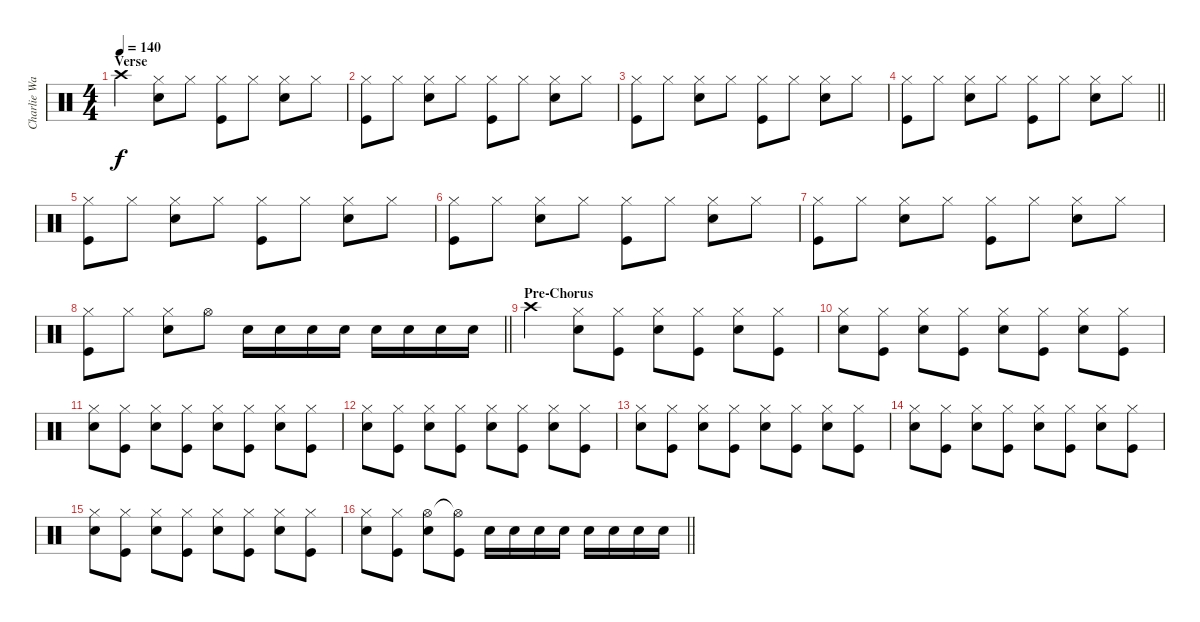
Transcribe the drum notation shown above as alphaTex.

\track ("Charlie Watts" "Charlie Wa") {instrument percussion}
\staff {score}
\articulation defaults
\ts (4 4)
\section ("" "Verse")
\tempo 140
\clef neutral
\ks c "Crash high (hit)".4{dy f}
("Snare (hit) 2" "Hi-Hat (closed)").8 "Hi-Hat (closed)".8 ("Kick (hit)" "Hi-Hat (closed)").8 "Hi-Hat (closed)".8 ("Snare (hit) 2" "Hi-Hat (closed)").8 "Hi-Hat (closed)".8 |
("Kick (hit)" "Hi-Hat (closed)").8 "Hi-Hat (closed)".8 ("Snare (hit) 2" "Hi-Hat (closed)").8 "Hi-Hat (closed)".8 ("Kick (hit)" "Hi-Hat (closed)").8 "Hi-Hat (closed)".8 ("Snare (hit) 2" "Hi-Hat (closed)").8 "Hi-Hat (closed)".8 |
("Kick (hit)" "Hi-Hat (closed)").8 "Hi-Hat (closed)".8 ("Snare (hit) 2" "Hi-Hat (closed)").8 "Hi-Hat (closed)".8 ("Kick (hit)" "Hi-Hat (closed)").8 "Hi-Hat (closed)".8 ("Snare (hit) 2" "Hi-Hat (closed)").8 "Hi-Hat (closed)".8 |
\barLineRight lightlight
("Kick (hit)" "Hi-Hat (closed)").8 "Hi-Hat (closed)".8 ("Snare (hit) 2" "Hi-Hat (closed)").8 "Hi-Hat (closed)".8 ("Kick (hit)" "Hi-Hat (closed)").8 "Hi-Hat (closed)".8 ("Snare (hit) 2" "Hi-Hat (closed)").8 "Hi-Hat (closed)".8 |
("Kick (hit)" "Hi-Hat (closed)").8 "Hi-Hat (closed)".8 ("Snare (hit) 2" "Hi-Hat (closed)").8 "Hi-Hat (closed)".8 ("Kick (hit)" "Hi-Hat (closed)").8 "Hi-Hat (closed)".8 ("Snare (hit) 2" "Hi-Hat (closed)").8 "Hi-Hat (closed)".8 |
("Kick (hit)" "Hi-Hat (closed)").8 "Hi-Hat (closed)".8 ("Snare (hit) 2" "Hi-Hat (closed)").8 "Hi-Hat (closed)".8 ("Kick (hit)" "Hi-Hat (closed)").8 "Hi-Hat (closed)".8 ("Snare (hit) 2" "Hi-Hat (closed)").8 "Hi-Hat (closed)".8 |
("Kick (hit)" "Hi-Hat (closed)").8 "Hi-Hat (closed)".8 ("Snare (hit) 2" "Hi-Hat (closed)").8 "Hi-Hat (closed)".8 ("Kick (hit)" "Hi-Hat (closed)").8 "Hi-Hat (closed)".8 ("Snare (hit) 2" "Hi-Hat (closed)").8 "Hi-Hat (closed)".8 |
\barLineRight lightlight
("Kick (hit)" "Hi-Hat (closed)").8 "Hi-Hat (closed)".8 ("Snare (hit) 2" "Hi-Hat (closed)").8 "Hi-Hat (open)".8 "Snare (hit) 2".16 "Snare (hit) 2".16 "Snare (hit) 2".16 "Snare (hit) 2".16 "Snare (hit) 2".16 "Snare (hit) 2".16 "Snare (hit) 2".16 "Snare (hit) 2".16 |
\section ("" "Pre-Chorus")
"Crash high (hit)".4 ("Snare (hit) 2" "Hi-Hat (closed)").8 ("Kick (hit)" "Hi-Hat (closed)").8 ("Snare (hit) 2" "Hi-Hat (closed)").8 ("Kick (hit)" "Hi-Hat (closed)").8 ("Snare (hit) 2" "Hi-Hat (closed)").8 ("Kick (hit)" "Hi-Hat (closed)").8 |
("Snare (hit) 2" "Hi-Hat (closed)").8 ("Kick (hit)" "Hi-Hat (closed)").8 ("Snare (hit) 2" "Hi-Hat (closed)").8 ("Kick (hit)" "Hi-Hat (closed)").8 ("Snare (hit) 2" "Hi-Hat (closed)").8 ("Kick (hit)" "Hi-Hat (closed)").8 ("Snare (hit) 2" "Hi-Hat (closed)").8 ("Kick (hit)" "Hi-Hat (closed)").8 |
("Snare (hit) 2" "Hi-Hat (closed)").8 ("Kick (hit)" "Hi-Hat (closed)").8 ("Snare (hit) 2" "Hi-Hat (closed)").8 ("Kick (hit)" "Hi-Hat (closed)").8 ("Snare (hit) 2" "Hi-Hat (closed)").8 ("Kick (hit)" "Hi-Hat (closed)").8 ("Snare (hit) 2" "Hi-Hat (closed)").8 ("Kick (hit)" "Hi-Hat (closed)").8 |
("Snare (hit) 2" "Hi-Hat (closed)").8 ("Kick (hit)" "Hi-Hat (closed)").8 ("Snare (hit) 2" "Hi-Hat (closed)").8 ("Kick (hit)" "Hi-Hat (closed)").8 ("Snare (hit) 2" "Hi-Hat (closed)").8 ("Kick (hit)" "Hi-Hat (closed)").8 ("Snare (hit) 2" "Hi-Hat (closed)").8 ("Kick (hit)" "Hi-Hat (closed)").8 |
("Snare (hit) 2" "Hi-Hat (closed)").8 ("Kick (hit)" "Hi-Hat (closed)").8 ("Snare (hit) 2" "Hi-Hat (closed)").8 ("Kick (hit)" "Hi-Hat (closed)").8 ("Snare (hit) 2" "Hi-Hat (closed)").8 ("Kick (hit)" "Hi-Hat (closed)").8 ("Snare (hit) 2" "Hi-Hat (closed)").8 ("Kick (hit)" "Hi-Hat (closed)").8 |
("Snare (hit) 2" "Hi-Hat (closed)").8 ("Kick (hit)" "Hi-Hat (closed)").8 ("Snare (hit) 2" "Hi-Hat (closed)").8 ("Kick (hit)" "Hi-Hat (closed)").8 ("Snare (hit) 2" "Hi-Hat (closed)").8 ("Kick (hit)" "Hi-Hat (closed)").8 ("Snare (hit) 2" "Hi-Hat (closed)").8 ("Kick (hit)" "Hi-Hat (closed)").8 |
("Snare (hit) 2" "Hi-Hat (closed)").8 ("Kick (hit)" "Hi-Hat (closed)").8 ("Snare (hit) 2" "Hi-Hat (closed)").8 ("Kick (hit)" "Hi-Hat (closed)").8 ("Snare (hit) 2" "Hi-Hat (closed)").8 ("Kick (hit)" "Hi-Hat (closed)").8 ("Snare (hit) 2" "Hi-Hat (closed)").8 ("Kick (hit)" "Hi-Hat (closed)").8 |
\barLineRight lightlight
("Snare (hit) 2" "Hi-Hat (closed)").8 ("Kick (hit)" "Hi-Hat (closed)").8 ("Snare (hit) 2" "Hi-Hat (open)").8 ("Kick (hit)" "Hi-Hat (open)"{t}).8 "Snare (hit) 2".16 "Snare (hit) 2".16 "Snare (hit) 2".16 "Snare (hit) 2".16 "Snare (hit) 2".16 "Snare (hit) 2".16 "Snare (hit) 2".16 "Snare (hit) 2".16
